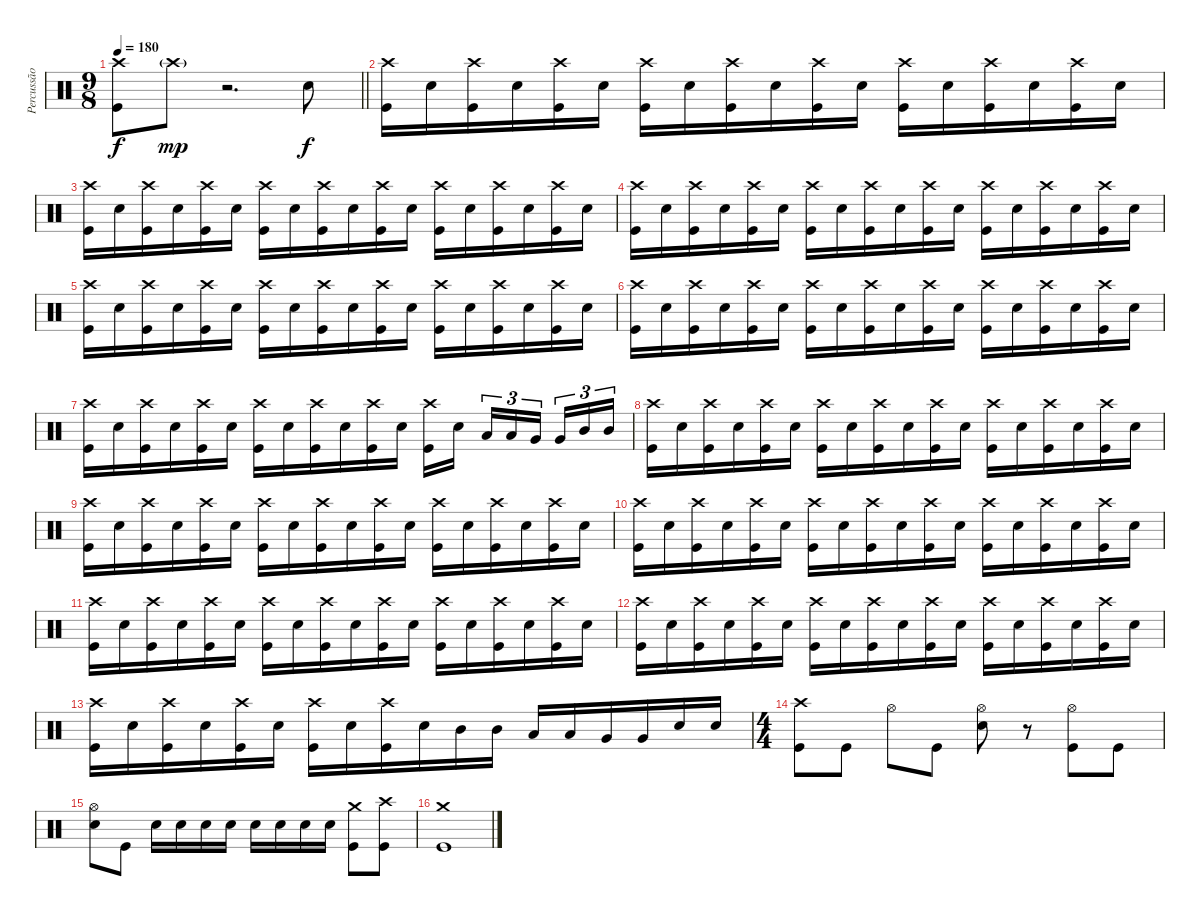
\track ("Percussão" "Percussão") {mute instrument percussion}
\staff {score}
\articulation defaults
\ts (9 8)
\tempo 180
\clef neutral
\barLineRight lightlight
\ks c
("Crash high (hit)" "Kick (hit)").8{dy f} "Crash high (hit)"{g}.8{dy mp} r.2{d} "Electric Snare (hit)".8{dy f} |
("Crash high (hit)" "Kick (hit)").16 "Electric Snare (hit)".16 ("Crash high (hit)" "Kick (hit)").16 "Electric Snare (hit)".16 ("Crash high (hit)" "Kick (hit)").16 "Electric Snare (hit)".16 ("Crash high (hit)" "Kick (hit)").16 "Electric Snare (hit)".16 ("Crash high (hit)" "Kick (hit)").16 "Electric Snare (hit)".16 ("Crash high (hit)" "Kick (hit)").16 "Electric Snare (hit)".16 ("Crash high (hit)" "Kick (hit)").16 "Electric Snare (hit)".16 ("Crash high (hit)" "Kick (hit)").16 "Electric Snare (hit)".16 ("Crash high (hit)" "Kick (hit)").16 "Electric Snare (hit)".16 |
("Crash high (hit)" "Kick (hit)").16 "Electric Snare (hit)".16 ("Crash high (hit)" "Kick (hit)").16 "Electric Snare (hit)".16 ("Crash high (hit)" "Kick (hit)").16 "Electric Snare (hit)".16 ("Crash high (hit)" "Kick (hit)").16 "Electric Snare (hit)".16 ("Crash high (hit)" "Kick (hit)").16 "Electric Snare (hit)".16 ("Crash high (hit)" "Kick (hit)").16 "Electric Snare (hit)".16 ("Crash high (hit)" "Kick (hit)").16 "Electric Snare (hit)".16 ("Crash high (hit)" "Kick (hit)").16 "Electric Snare (hit)".16 ("Crash high (hit)" "Kick (hit)").16 "Electric Snare (hit)".16 |
("Crash high (hit)" "Kick (hit)").16 "Electric Snare (hit)".16 ("Crash high (hit)" "Kick (hit)").16 "Electric Snare (hit)".16 ("Crash high (hit)" "Kick (hit)").16 "Electric Snare (hit)".16 ("Crash high (hit)" "Kick (hit)").16 "Electric Snare (hit)".16 ("Crash high (hit)" "Kick (hit)").16 "Electric Snare (hit)".16 ("Crash high (hit)" "Kick (hit)").16 "Electric Snare (hit)".16 ("Crash high (hit)" "Kick (hit)").16 "Electric Snare (hit)".16 ("Crash high (hit)" "Kick (hit)").16 "Electric Snare (hit)".16 ("Crash high (hit)" "Kick (hit)").16 "Electric Snare (hit)".16 |
("Crash high (hit)" "Kick (hit)").16 "Electric Snare (hit)".16 ("Crash high (hit)" "Kick (hit)").16 "Electric Snare (hit)".16 ("Crash high (hit)" "Kick (hit)").16 "Electric Snare (hit)".16 ("Crash high (hit)" "Kick (hit)").16 "Electric Snare (hit)".16 ("Crash high (hit)" "Kick (hit)").16 "Electric Snare (hit)".16 ("Crash high (hit)" "Kick (hit)").16 "Electric Snare (hit)".16 ("Crash high (hit)" "Kick (hit)").16 "Electric Snare (hit)".16 ("Crash high (hit)" "Kick (hit)").16 "Electric Snare (hit)".16 ("Crash high (hit)" "Kick (hit)").16 "Electric Snare (hit)".16 |
("Crash high (hit)" "Kick (hit)").16 "Electric Snare (hit)".16 ("Crash high (hit)" "Kick (hit)").16 "Electric Snare (hit)".16 ("Crash high (hit)" "Kick (hit)").16 "Electric Snare (hit)".16 ("Crash high (hit)" "Kick (hit)").16 "Electric Snare (hit)".16 ("Crash high (hit)" "Kick (hit)").16 "Electric Snare (hit)".16 ("Crash high (hit)" "Kick (hit)").16 "Electric Snare (hit)".16 ("Crash high (hit)" "Kick (hit)").16 "Electric Snare (hit)".16 ("Crash high (hit)" "Kick (hit)").16 "Electric Snare (hit)".16 ("Crash high (hit)" "Kick (hit)").16 "Electric Snare (hit)".16 |
("Crash high (hit)" "Kick (hit)").16 "Electric Snare (hit)".16 ("Crash high (hit)" "Kick (hit)").16 "Electric Snare (hit)".16 ("Crash high (hit)" "Kick (hit)").16 "Electric Snare (hit)".16 ("Crash high (hit)" "Kick (hit)").16 "Electric Snare (hit)".16 ("Crash high (hit)" "Kick (hit)").16 "Electric Snare (hit)".16 ("Crash high (hit)" "Kick (hit)").16 "Electric Snare (hit)".16 ("Crash high (hit)" "Kick (hit)").16 "Electric Snare (hit)".16{beam splitsecondary} "Low Tom (hit)".16{tu (3 2)} "Low Tom (hit)".16{tu (3 2)} "Very Low Tom (hit)".16{tu (3 2) beam splitsecondary} "Very Low Tom (hit)".16{tu (3 2)} "Mid Tom (hit)".16{tu (3 2)} "Mid Tom (hit)".16{tu (3 2)} |
("Crash high (hit)" "Kick (hit)").16 "Electric Snare (hit)".16 ("Crash high (hit)" "Kick (hit)").16 "Electric Snare (hit)".16 ("Crash high (hit)" "Kick (hit)").16 "Electric Snare (hit)".16 ("Crash high (hit)" "Kick (hit)").16 "Electric Snare (hit)".16 ("Crash high (hit)" "Kick (hit)").16 "Electric Snare (hit)".16 ("Crash high (hit)" "Kick (hit)").16 "Electric Snare (hit)".16 ("Crash high (hit)" "Kick (hit)").16 "Electric Snare (hit)".16 ("Crash high (hit)" "Kick (hit)").16 "Electric Snare (hit)".16 ("Crash high (hit)" "Kick (hit)").16 "Electric Snare (hit)".16 |
("Crash high (hit)" "Kick (hit)").16 "Electric Snare (hit)".16 ("Crash high (hit)" "Kick (hit)").16 "Electric Snare (hit)".16 ("Crash high (hit)" "Kick (hit)").16 "Electric Snare (hit)".16 ("Crash high (hit)" "Kick (hit)").16 "Electric Snare (hit)".16 ("Crash high (hit)" "Kick (hit)").16 "Electric Snare (hit)".16 ("Crash high (hit)" "Kick (hit)").16 "Electric Snare (hit)".16 ("Crash high (hit)" "Kick (hit)").16 "Electric Snare (hit)".16 ("Crash high (hit)" "Kick (hit)").16 "Electric Snare (hit)".16 ("Crash high (hit)" "Kick (hit)").16 "Electric Snare (hit)".16 |
("Crash high (hit)" "Kick (hit)").16 "Electric Snare (hit)".16 ("Crash high (hit)" "Kick (hit)").16 "Electric Snare (hit)".16 ("Crash high (hit)" "Kick (hit)").16 "Electric Snare (hit)".16 ("Crash high (hit)" "Kick (hit)").16 "Electric Snare (hit)".16 ("Crash high (hit)" "Kick (hit)").16 "Electric Snare (hit)".16 ("Crash high (hit)" "Kick (hit)").16 "Electric Snare (hit)".16 ("Crash high (hit)" "Kick (hit)").16 "Electric Snare (hit)".16 ("Crash high (hit)" "Kick (hit)").16 "Electric Snare (hit)".16 ("Crash high (hit)" "Kick (hit)").16 "Electric Snare (hit)".16 |
("Crash high (hit)" "Kick (hit)").16 "Electric Snare (hit)".16 ("Crash high (hit)" "Kick (hit)").16 "Electric Snare (hit)".16 ("Crash high (hit)" "Kick (hit)").16 "Electric Snare (hit)".16 ("Crash high (hit)" "Kick (hit)").16 "Electric Snare (hit)".16 ("Crash high (hit)" "Kick (hit)").16 "Electric Snare (hit)".16 ("Crash high (hit)" "Kick (hit)").16 "Electric Snare (hit)".16 ("Crash high (hit)" "Kick (hit)").16 "Electric Snare (hit)".16 ("Crash high (hit)" "Kick (hit)").16 "Electric Snare (hit)".16 ("Crash high (hit)" "Kick (hit)").16 "Electric Snare (hit)".16 |
("Crash high (hit)" "Kick (hit)").16 "Electric Snare (hit)".16 ("Crash high (hit)" "Kick (hit)").16 "Electric Snare (hit)".16 ("Crash high (hit)" "Kick (hit)").16 "Electric Snare (hit)".16 ("Crash high (hit)" "Kick (hit)").16 "Electric Snare (hit)".16 ("Crash high (hit)" "Kick (hit)").16 "Electric Snare (hit)".16 ("Crash high (hit)" "Kick (hit)").16 "Electric Snare (hit)".16 ("Crash high (hit)" "Kick (hit)").16 "Electric Snare (hit)".16 ("Crash high (hit)" "Kick (hit)").16 "Electric Snare (hit)".16 ("Crash high (hit)" "Kick (hit)").16 "Electric Snare (hit)".16 |
("Crash high (hit)" "Kick (hit)").16 "Electric Snare (hit)".16 ("Crash high (hit)" "Kick (hit)").16 "Electric Snare (hit)".16 ("Crash high (hit)" "Kick (hit)").16 "Electric Snare (hit)".16 ("Crash high (hit)" "Kick (hit)").16 "Electric Snare (hit)".16 ("Crash high (hit)" "Kick (hit)").16 "Electric Snare (hit)".16 "Mid Tom (hit)".16 "Mid Tom (hit)".16 "Low Tom (hit)".16 "Low Tom (hit)".16 "Very Low Tom (hit)".16 "Very Low Tom (hit)".16 "Electric Snare (hit)".16 "Electric Snare (hit)".16 |
\ts (4 4)
("Crash high (hit)" "Kick (hit)").8 "Kick (hit)".8 "Hi-Hat (open)".8 "Kick (hit)".8 ("Hi-Hat (open)" "Electric Snare (hit)").8 r.8 ("Hi-Hat (open)" "Kick (hit)").8 "Kick (hit)".8 |
("Hi-Hat (open)" "Electric Snare (hit)").8 "Kick (hit)".8 "Electric Snare (hit)".16 "Electric Snare (hit)".16 "Electric Snare (hit)".16 "Electric Snare (hit)".16 "Electric Snare (hit)".16 "Electric Snare (hit)".16 "Electric Snare (hit)".16 "Electric Snare (hit)".16 ("Crash medium (hit)" "Kick (hit)").8 ("Crash high (hit)" "Kick (hit)").8 |
("Crash medium (hit)" "Kick (hit)").1
